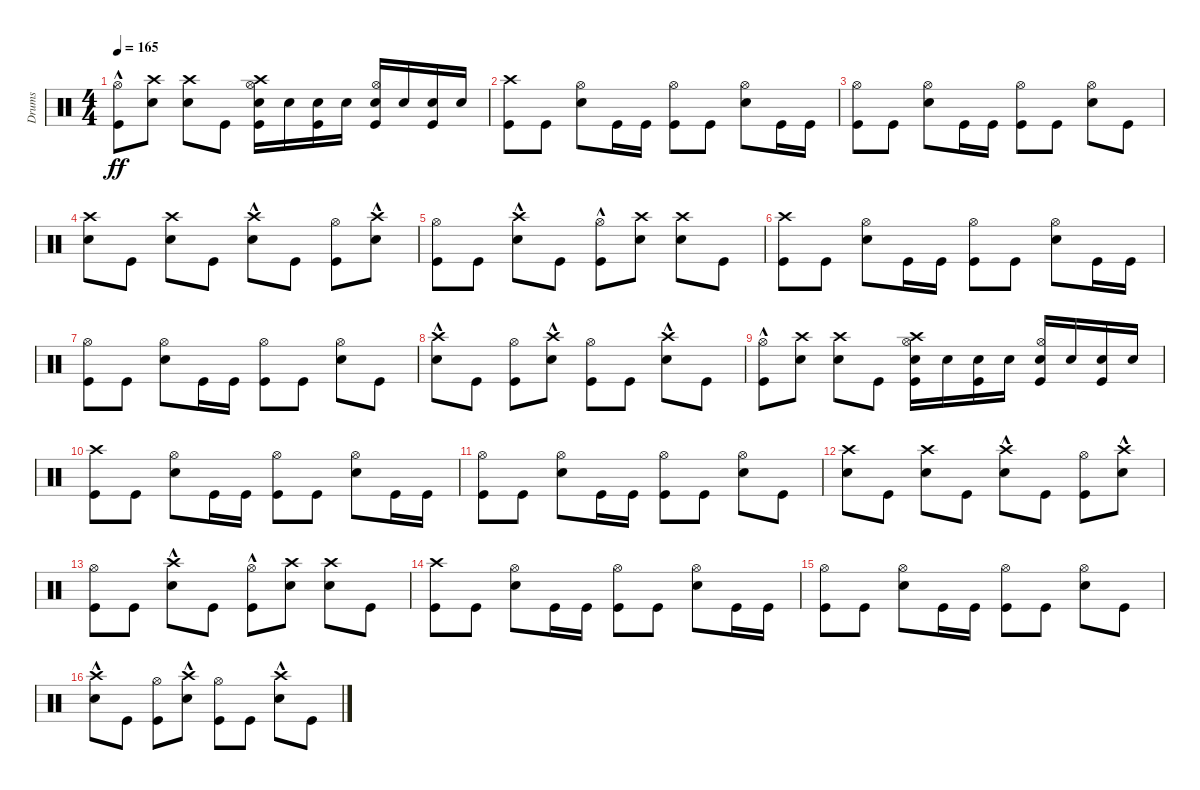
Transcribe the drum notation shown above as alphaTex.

\track ("Drums" "Drums") {instrument percussion}
\staff {score}
\articulation defaults
\ts (4 4)
\tempo 165
\clef neutral
\ks c
("Kick (hit)"{hac} "Hi-Hat (open)").8{dy ff} ("Snare (hit) 2" "Crash high (hit)").8 ("Snare (hit) 2" "Crash high (hit)").8 "Kick (hit)".8 ("Kick (hit)" "Snare (hit) 2" "Hi-Hat (open)" "Crash high (hit)").16 "Snare (hit) 2".16 ("Kick (hit)" "Snare (hit) 2").16 "Snare (hit) 2".16 ("Kick (hit)" "Snare (hit) 2" "Hi-Hat (open)").16 "Snare (hit) 2".16 ("Kick (hit)" "Snare (hit) 2").16 "Snare (hit) 2".16 |
("Kick (hit)" "Crash high (hit)").8 "Kick (hit)".8 ("Snare (hit) 2" "Hi-Hat (open)").8 "Kick (hit)".16 "Kick (hit)".16 ("Kick (hit)" "Hi-Hat (open)").8 "Kick (hit)".8 ("Snare (hit) 2" "Hi-Hat (open)").8 "Kick (hit)".16 "Kick (hit)".16 |
("Kick (hit)" "Hi-Hat (open)").8 "Kick (hit)".8 ("Snare (hit) 2" "Hi-Hat (open)").8 "Kick (hit)".16 "Kick (hit)".16 ("Kick (hit)" "Hi-Hat (open)").8 "Kick (hit)".8 ("Snare (hit) 2" "Hi-Hat (open)").8 "Kick (hit)".8 |
("Snare (hit) 2" "Crash high (hit)").8 "Kick (hit)".8 ("Snare (hit) 2" "Crash high (hit)").8 "Kick (hit)".8 ("Snare (hit) 2"{hac} "Crash high (hit)"{hac}).8 "Kick (hit)".8 ("Kick (hit)" "Hi-Hat (open)").8 ("Snare (hit) 2"{hac} "Crash high (hit)"{hac}).8 |
("Kick (hit)" "Hi-Hat (open)").8 "Kick (hit)".8 ("Snare (hit) 2"{hac} "Crash high (hit)"{hac}).8 "Kick (hit)".8 ("Kick (hit)"{hac} "Hi-Hat (open)"{hac}).8 ("Snare (hit) 2" "Crash high (hit)").8 ("Snare (hit) 2" "Crash high (hit)").8 "Kick (hit)".8 |
("Kick (hit)" "Crash high (hit)").8 "Kick (hit)".8 ("Snare (hit) 2" "Hi-Hat (open)").8 "Kick (hit)".16 "Kick (hit)".16 ("Kick (hit)" "Hi-Hat (open)").8 "Kick (hit)".8 ("Snare (hit) 2" "Hi-Hat (open)").8 "Kick (hit)".16 "Kick (hit)".16 |
("Kick (hit)" "Hi-Hat (open)").8 "Kick (hit)".8 ("Snare (hit) 2" "Hi-Hat (open)").8 "Kick (hit)".16 "Kick (hit)".16 ("Kick (hit)" "Hi-Hat (open)").8 "Kick (hit)".8 ("Snare (hit) 2" "Hi-Hat (open)").8 "Kick (hit)".8 |
("Snare (hit) 2"{hac} "Crash high (hit)"{hac}).8 "Kick (hit)".8 ("Kick (hit)" "Hi-Hat (open)").8 ("Snare (hit) 2"{hac} "Crash high (hit)"{hac}).8 ("Kick (hit)" "Hi-Hat (open)").8 "Kick (hit)".8 ("Snare (hit) 2"{hac} "Crash high (hit)"{hac}).8 "Kick (hit)".8 |
("Kick (hit)"{hac} "Hi-Hat (open)").8 ("Snare (hit) 2" "Crash high (hit)").8 ("Snare (hit) 2" "Crash high (hit)").8 "Kick (hit)".8 ("Kick (hit)" "Snare (hit) 2" "Hi-Hat (open)" "Crash high (hit)").16 "Snare (hit) 2".16 ("Kick (hit)" "Snare (hit) 2").16 "Snare (hit) 2".16 ("Kick (hit)" "Snare (hit) 2" "Hi-Hat (open)").16 "Snare (hit) 2".16 ("Kick (hit)" "Snare (hit) 2").16 "Snare (hit) 2".16 |
("Kick (hit)" "Crash high (hit)").8 "Kick (hit)".8 ("Snare (hit) 2" "Hi-Hat (open)").8 "Kick (hit)".16 "Kick (hit)".16 ("Kick (hit)" "Hi-Hat (open)").8 "Kick (hit)".8 ("Snare (hit) 2" "Hi-Hat (open)").8 "Kick (hit)".16 "Kick (hit)".16 |
("Kick (hit)" "Hi-Hat (open)").8 "Kick (hit)".8 ("Snare (hit) 2" "Hi-Hat (open)").8 "Kick (hit)".16 "Kick (hit)".16 ("Kick (hit)" "Hi-Hat (open)").8 "Kick (hit)".8 ("Snare (hit) 2" "Hi-Hat (open)").8 "Kick (hit)".8 |
("Snare (hit) 2" "Crash high (hit)").8 "Kick (hit)".8 ("Snare (hit) 2" "Crash high (hit)").8 "Kick (hit)".8 ("Snare (hit) 2"{hac} "Crash high (hit)"{hac}).8 "Kick (hit)".8 ("Kick (hit)" "Hi-Hat (open)").8 ("Snare (hit) 2"{hac} "Crash high (hit)"{hac}).8 |
("Kick (hit)" "Hi-Hat (open)").8 "Kick (hit)".8 ("Snare (hit) 2"{hac} "Crash high (hit)"{hac}).8 "Kick (hit)".8 ("Kick (hit)"{hac} "Hi-Hat (open)"{hac}).8 ("Snare (hit) 2" "Crash high (hit)").8 ("Snare (hit) 2" "Crash high (hit)").8 "Kick (hit)".8 |
("Kick (hit)" "Crash high (hit)").8 "Kick (hit)".8 ("Snare (hit) 2" "Hi-Hat (open)").8 "Kick (hit)".16 "Kick (hit)".16 ("Kick (hit)" "Hi-Hat (open)").8 "Kick (hit)".8 ("Snare (hit) 2" "Hi-Hat (open)").8 "Kick (hit)".16 "Kick (hit)".16 |
("Kick (hit)" "Hi-Hat (open)").8 "Kick (hit)".8 ("Snare (hit) 2" "Hi-Hat (open)").8 "Kick (hit)".16 "Kick (hit)".16 ("Kick (hit)" "Hi-Hat (open)").8 "Kick (hit)".8 ("Snare (hit) 2" "Hi-Hat (open)").8 "Kick (hit)".8 |
("Snare (hit) 2"{hac} "Crash high (hit)"{hac}).8 "Kick (hit)".8 ("Kick (hit)" "Hi-Hat (open)").8 ("Snare (hit) 2"{hac} "Crash high (hit)"{hac}).8 ("Kick (hit)" "Hi-Hat (open)").8 "Kick (hit)".8 ("Snare (hit) 2"{hac} "Crash high (hit)"{hac}).8 "Kick (hit)".8
